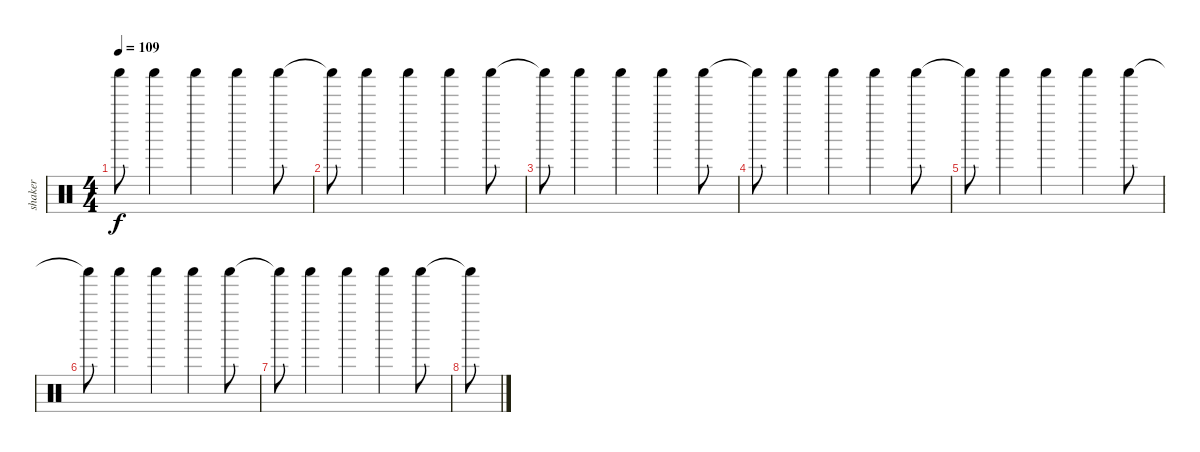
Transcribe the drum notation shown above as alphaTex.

\track ("shaker" "shaker") {instrument percussion}
\staff {score}
\articulation defaults
\ts (4 4)
\tempo 109
\clef neutral
\ks c "Shaker (hit)"{t}.8{dy f} "Shaker (hit)".4 "Shaker (hit)".4 "Shaker (hit)".4 "Shaker (hit)".8
|
"Shaker (hit)"{t}.8 "Shaker (hit)".4 "Shaker (hit)".4 "Shaker (hit)".4 "Shaker (hit)".8 |
"Shaker (hit)"{t}.8 "Shaker (hit)".4 "Shaker (hit)".4 "Shaker (hit)".4 "Shaker (hit)".8 |
"Shaker (hit)"{t}.8 "Shaker (hit)".4 "Shaker (hit)".4 "Shaker (hit)".4 "Shaker (hit)".8 |
"Shaker (hit)"{t}.8 "Shaker (hit)".4 "Shaker (hit)".4 "Shaker (hit)".4 "Shaker (hit)".8 |
"Shaker (hit)"{t}.8 "Shaker (hit)".4 "Shaker (hit)".4 "Shaker (hit)".4 "Shaker (hit)".8 |
"Shaker (hit)"{t}.8 "Shaker (hit)".4 "Shaker (hit)".4 "Shaker (hit)".4 "Shaker (hit)".8 |
"Shaker (hit)"{t}.8
